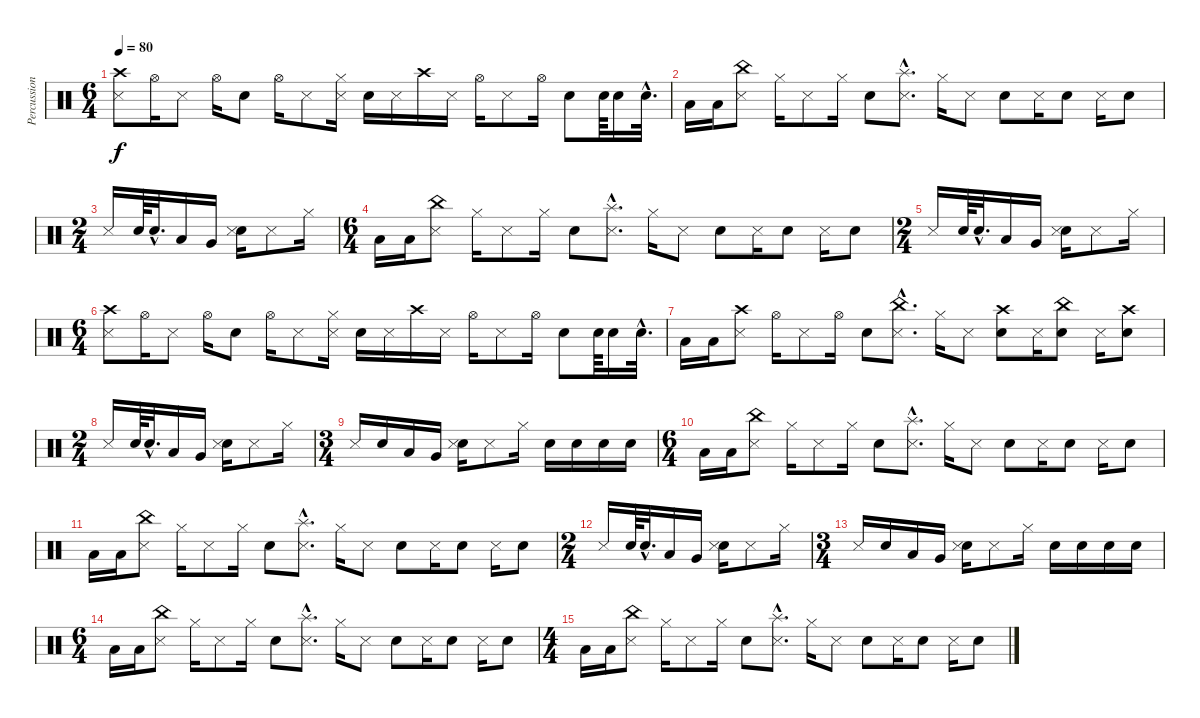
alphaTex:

\track ("Percussions" "Percussion") {instrument percussion}
\staff {score}
\articulation defaults
\ts (6 4)
\tempo 80
\clef neutral
\ks c
("Crash high (hit)" "Metronome (hit)").8{dy f} "Hi-Hat (open)".16 "Metronome (hit)".8 "Hi-Hat (open)".16 "Snare (hit) 2".8 "Hi-Hat (open)".16 "Metronome (hit)".8 ("Hi-Hat (closed)" "Metronome (hit)").16 "Snare (hit) 2".16 "Metronome (hit)".16 "Crash high (hit)".16 "Metronome (hit)".16 "Hi-Hat (open)".16 "Metronome (hit)".8 "Hi-Hat (open)".16 "Snare (hit) 2".8 "Snare (hit) 2".64 "Snare (hit) 2".16 "Snare (hit) 2"{hac}.32{d} |
"Low Floor Tom (hit)".16 "Low Floor Tom (hit)".16 ("China (hit)" "Metronome (hit)").8 "Hi-Hat (closed)".16 "Metronome (hit)".8 "Hi-Hat (closed)".16 "Snare (hit) 2".8 ("Splash (hit)"{hac} "Metronome (hit)"{hac}).8{d} "Hi-Hat (closed)".16 "Metronome (hit)".8 "Snare (hit) 2".8 "Metronome (hit)".16 "Snare (hit) 2".8 "Metronome (hit)".16 "Snare (hit) 2".8 |
\ts (2 4)
"Metronome (hit)".16 "Snare (hit) 2".64 "Snare (hit) 2"{hac}.32{d} "Low Floor Tom (hit)".16 "Very Low Tom (hit)".16 ("Snare (hit) 2" "Metronome (hit)").16 "Metronome (hit)".8 "Hi-Hat (closed)".16 |
\ts (6 4)
"Low Floor Tom (hit)".16 "Low Floor Tom (hit)".16 ("China (hit)" "Metronome (hit)").8 "Hi-Hat (closed)".16 "Metronome (hit)".8 "Hi-Hat (closed)".16 "Snare (hit) 2".8 ("Splash (hit)"{hac} "Metronome (hit)"{hac}).8{d} "Hi-Hat (closed)".16 "Metronome (hit)".8 "Snare (hit) 2".8 "Metronome (hit)".16 "Snare (hit) 2".8 "Metronome (hit)".16 "Snare (hit) 2".8 |
\ts (2 4)
"Metronome (hit)".16 "Snare (hit) 2".64 "Snare (hit) 2"{hac}.32{d} "Low Floor Tom (hit)".16 "Very Low Tom (hit)".16 ("Snare (hit) 2" "Metronome (hit)").16 "Metronome (hit)".8 "Hi-Hat (closed)".16 |
\ts (6 4)
("Crash high (hit)" "Metronome (hit)").8 "Hi-Hat (open)".16 "Metronome (hit)".8 "Hi-Hat (open)".16 "Snare (hit) 2".8 "Hi-Hat (open)".16 "Metronome (hit)".8 ("Hi-Hat (closed)" "Metronome (hit)").16 "Snare (hit) 2".16 "Metronome (hit)".16 "Crash high (hit)".16 "Metronome (hit)".16 "Hi-Hat (open)".16 "Metronome (hit)".8 "Hi-Hat (open)".16 "Snare (hit) 2".8 "Snare (hit) 2".64 "Snare (hit) 2".16 "Snare (hit) 2"{hac}.32{d} |
"Low Floor Tom (hit)".16 "Low Floor Tom (hit)".16 ("Crash high (hit)" "Metronome (hit)").8 "Hi-Hat (open)".16 "Metronome (hit)".8 "Hi-Hat (open)".16 "Snare (hit) 2".8 ("China (hit)"{hac} "Metronome (hit)"{hac}).8{d} "Hi-Hat (closed)".16 "Metronome (hit)".8 ("Crash high (hit)" "Snare (hit) 2").8 "Metronome (hit)".16 ("China (hit)" "Snare (hit) 2").8 "Metronome (hit)".16 ("Crash high (hit)" "Snare (hit) 2").8 |
\ts (2 4)
"Metronome (hit)".16 "Snare (hit) 2".64 "Snare (hit) 2"{hac}.32{d} "Low Floor Tom (hit)".16 "Very Low Tom (hit)".16 ("Snare (hit) 2" "Metronome (hit)").16 "Metronome (hit)".8 "Hi-Hat (closed)".16 |
\ts (3 4)
"Metronome (hit)".16 "Snare (hit) 2".16 "Low Floor Tom (hit)".16 "Very Low Tom (hit)".16 ("Snare (hit) 2" "Metronome (hit)").16 "Metronome (hit)".8 "Hi-Hat (closed)".16 "Snare (hit) 2".16 "Snare (hit) 2".16 "Snare (hit) 2".16 "Snare (hit) 2".16 |
\ts (6 4)
"Low Floor Tom (hit)".16 "Low Floor Tom (hit)".16 ("China (hit)" "Metronome (hit)").8 "Hi-Hat (closed)".16 "Metronome (hit)".8 "Hi-Hat (closed)".16 "Snare (hit) 2".8 ("Splash (hit)"{hac} "Metronome (hit)"{hac}).8{d} "Hi-Hat (closed)".16 "Metronome (hit)".8 "Snare (hit) 2".8 "Metronome (hit)".16 "Snare (hit) 2".8 "Metronome (hit)".16 "Snare (hit) 2".8 |
"Low Floor Tom (hit)".16 "Low Floor Tom (hit)".16 ("China (hit)" "Metronome (hit)").8 "Hi-Hat (closed)".16 "Metronome (hit)".8 "Hi-Hat (closed)".16 "Snare (hit) 2".8 ("Splash (hit)"{hac} "Metronome (hit)"{hac}).8{d} "Hi-Hat (closed)".16 "Metronome (hit)".8 "Snare (hit) 2".8 "Metronome (hit)".16 "Snare (hit) 2".8 "Metronome (hit)".16 "Snare (hit) 2".8 |
\ts (2 4)
"Metronome (hit)".16 "Snare (hit) 2".64 "Snare (hit) 2"{hac}.32{d} "Low Floor Tom (hit)".16 "Very Low Tom (hit)".16 ("Snare (hit) 2" "Metronome (hit)").16 "Metronome (hit)".8 "Hi-Hat (closed)".16 |
\ts (3 4)
"Metronome (hit)".16 "Snare (hit) 2".16 "Low Floor Tom (hit)".16 "Very Low Tom (hit)".16 ("Snare (hit) 2" "Metronome (hit)").16 "Metronome (hit)".8 "Hi-Hat (closed)".16 "Snare (hit) 2".16 "Snare (hit) 2".16 "Snare (hit) 2".16 "Snare (hit) 2".16 |
\ts (6 4)
"Low Floor Tom (hit)".16 "Low Floor Tom (hit)".16 ("China (hit)" "Metronome (hit)").8 "Hi-Hat (closed)".16 "Metronome (hit)".8 "Hi-Hat (closed)".16 "Snare (hit) 2".8 ("Splash (hit)"{hac} "Metronome (hit)"{hac}).8{d} "Hi-Hat (closed)".16 "Metronome (hit)".8 "Snare (hit) 2".8 "Metronome (hit)".16 "Snare (hit) 2".8 "Metronome (hit)".16 "Snare (hit) 2".8 |
\ts (4 4)
"Low Floor Tom (hit)".16 "Low Floor Tom (hit)".16 ("China (hit)" "Metronome (hit)").8 "Hi-Hat (closed)".16 "Metronome (hit)".8 "Hi-Hat (closed)".16 "Snare (hit) 2".8 ("Splash (hit)"{hac} "Metronome (hit)"{hac}).8{d} "Hi-Hat (closed)".16 "Metronome (hit)".8 "Snare (hit) 2".8 "Metronome (hit)".16 "Snare (hit) 2".8 "Metronome (hit)".16 "Snare (hit) 2".8
